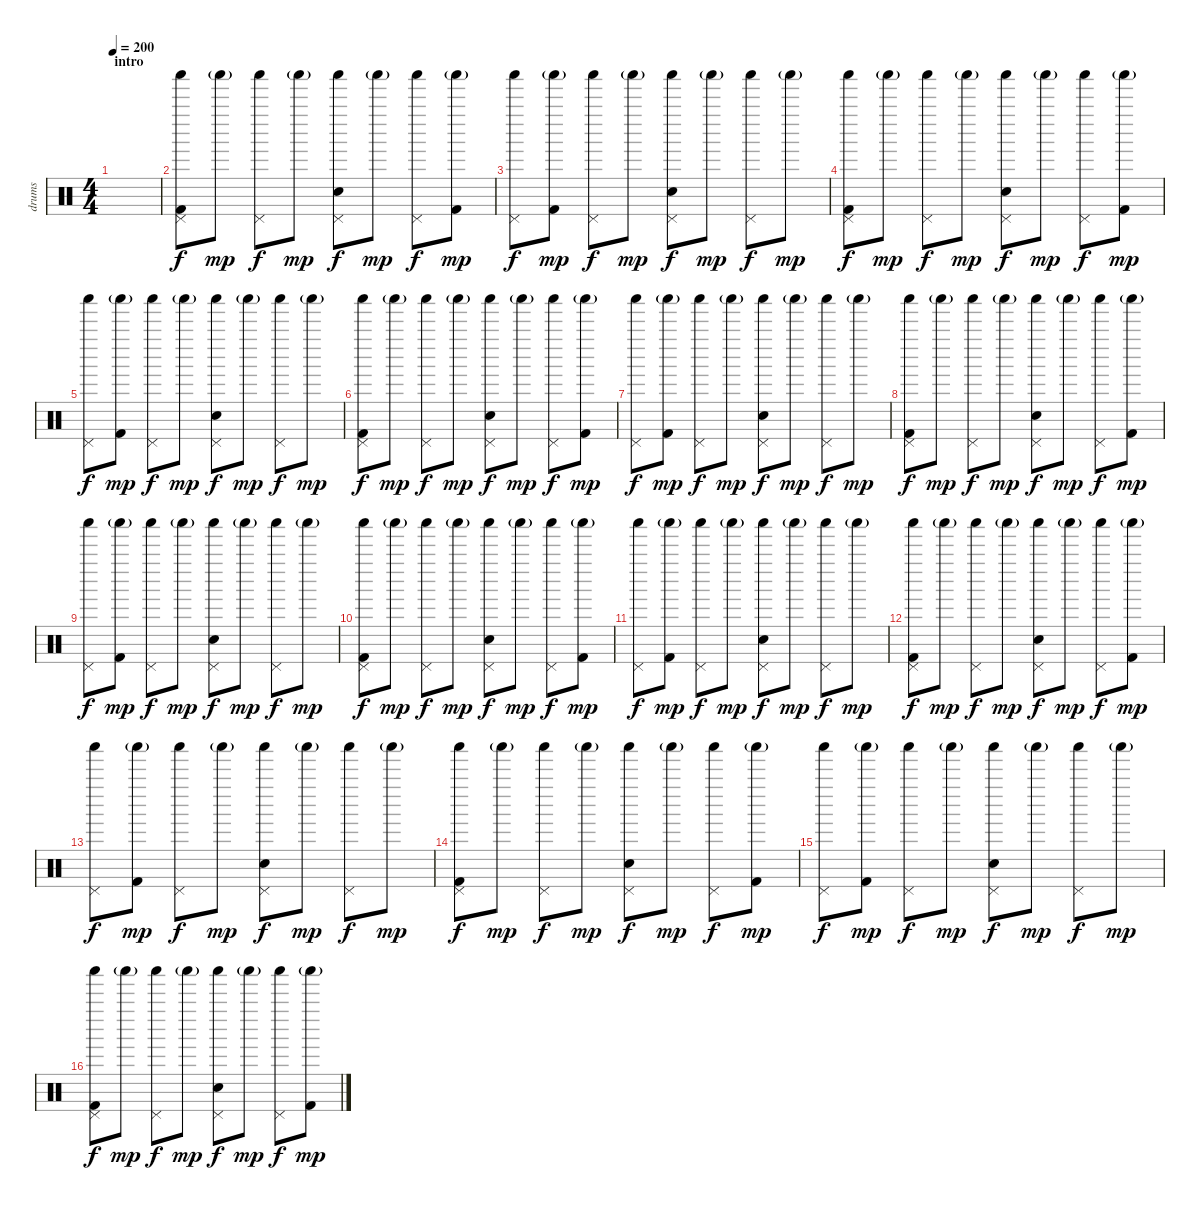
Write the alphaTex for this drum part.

\track ("drums" "drums") {instrument percussion}
\staff {score}
\articulation defaults
\ts (4 4)
\section ("" "intro")
\tempo 200
\clef neutral
\ks c
|
("Kick (hit) 2" "Shaker (hit)" "Pedal Hi-Hat (hit)").8 "Shaker (hit)"{g}.8{dy mp} ("Shaker (hit)" "Pedal Hi-Hat (hit)").8{dy f} "Shaker (hit)"{g}.8{dy mp} ("Electric Snare (hit)" "Shaker (hit)" "Pedal Hi-Hat (hit)").8{dy f} "Shaker (hit)"{g}.8{dy mp} ("Shaker (hit)" "Pedal Hi-Hat (hit)").8{dy f} ("Kick (hit) 2" "Shaker (hit)"{g}).8{dy mp} |
("Shaker (hit)" "Pedal Hi-Hat (hit)").8{dy f} ("Kick (hit) 2" "Shaker (hit)"{g}).8{dy mp} ("Shaker (hit)" "Pedal Hi-Hat (hit)").8{dy f} "Shaker (hit)"{g}.8{dy mp} ("Electric Snare (hit)" "Shaker (hit)" "Pedal Hi-Hat (hit)").8{dy f} "Shaker (hit)"{g}.8{dy mp} ("Shaker (hit)" "Pedal Hi-Hat (hit)").8{dy f} "Shaker (hit)"{g}.8{dy mp} |
("Kick (hit) 2" "Shaker (hit)" "Pedal Hi-Hat (hit)").8{dy f} "Shaker (hit)"{g}.8{dy mp} ("Shaker (hit)" "Pedal Hi-Hat (hit)").8{dy f} "Shaker (hit)"{g}.8{dy mp} ("Electric Snare (hit)" "Shaker (hit)" "Pedal Hi-Hat (hit)").8{dy f} "Shaker (hit)"{g}.8{dy mp} ("Shaker (hit)" "Pedal Hi-Hat (hit)").8{dy f} ("Kick (hit) 2" "Shaker (hit)"{g}).8{dy mp} |
("Shaker (hit)" "Pedal Hi-Hat (hit)").8{dy f} ("Kick (hit) 2" "Shaker (hit)"{g}).8{dy mp} ("Shaker (hit)" "Pedal Hi-Hat (hit)").8{dy f} "Shaker (hit)"{g}.8{dy mp} ("Electric Snare (hit)" "Shaker (hit)" "Pedal Hi-Hat (hit)").8{dy f} "Shaker (hit)"{g}.8{dy mp} ("Shaker (hit)" "Pedal Hi-Hat (hit)").8{dy f} "Shaker (hit)"{g}.8{dy mp} |
("Kick (hit) 2" "Shaker (hit)" "Pedal Hi-Hat (hit)").8{dy f} "Shaker (hit)"{g}.8{dy mp} ("Shaker (hit)" "Pedal Hi-Hat (hit)").8{dy f} "Shaker (hit)"{g}.8{dy mp} ("Electric Snare (hit)" "Shaker (hit)" "Pedal Hi-Hat (hit)").8{dy f} "Shaker (hit)"{g}.8{dy mp} ("Shaker (hit)" "Pedal Hi-Hat (hit)").8{dy f} ("Kick (hit) 2" "Shaker (hit)"{g}).8{dy mp} |
("Shaker (hit)" "Pedal Hi-Hat (hit)").8{dy f} ("Kick (hit) 2" "Shaker (hit)"{g}).8{dy mp} ("Shaker (hit)" "Pedal Hi-Hat (hit)").8{dy f} "Shaker (hit)"{g}.8{dy mp} ("Electric Snare (hit)" "Shaker (hit)" "Pedal Hi-Hat (hit)").8{dy f} "Shaker (hit)"{g}.8{dy mp} ("Shaker (hit)" "Pedal Hi-Hat (hit)").8{dy f} "Shaker (hit)"{g}.8{dy mp} |
("Kick (hit) 2" "Shaker (hit)" "Pedal Hi-Hat (hit)").8{dy f} "Shaker (hit)"{g}.8{dy mp} ("Shaker (hit)" "Pedal Hi-Hat (hit)").8{dy f} "Shaker (hit)"{g}.8{dy mp} ("Electric Snare (hit)" "Shaker (hit)" "Pedal Hi-Hat (hit)").8{dy f} "Shaker (hit)"{g}.8{dy mp} ("Shaker (hit)" "Pedal Hi-Hat (hit)").8{dy f} ("Kick (hit) 2" "Shaker (hit)"{g}).8{dy mp} |
("Shaker (hit)" "Pedal Hi-Hat (hit)").8{dy f} ("Kick (hit) 2" "Shaker (hit)"{g}).8{dy mp} ("Shaker (hit)" "Pedal Hi-Hat (hit)").8{dy f} "Shaker (hit)"{g}.8{dy mp} ("Electric Snare (hit)" "Shaker (hit)" "Pedal Hi-Hat (hit)").8{dy f} "Shaker (hit)"{g}.8{dy mp} ("Shaker (hit)" "Pedal Hi-Hat (hit)").8{dy f} "Shaker (hit)"{g}.8{dy mp} |
("Kick (hit) 2" "Shaker (hit)" "Pedal Hi-Hat (hit)").8{dy f} "Shaker (hit)"{g}.8{dy mp} ("Shaker (hit)" "Pedal Hi-Hat (hit)").8{dy f} "Shaker (hit)"{g}.8{dy mp} ("Electric Snare (hit)" "Shaker (hit)" "Pedal Hi-Hat (hit)").8{dy f} "Shaker (hit)"{g}.8{dy mp} ("Shaker (hit)" "Pedal Hi-Hat (hit)").8{dy f} ("Kick (hit) 2" "Shaker (hit)"{g}).8{dy mp} |
("Shaker (hit)" "Pedal Hi-Hat (hit)").8{dy f} ("Kick (hit) 2" "Shaker (hit)"{g}).8{dy mp} ("Shaker (hit)" "Pedal Hi-Hat (hit)").8{dy f} "Shaker (hit)"{g}.8{dy mp} ("Electric Snare (hit)" "Shaker (hit)" "Pedal Hi-Hat (hit)").8{dy f} "Shaker (hit)"{g}.8{dy mp} ("Shaker (hit)" "Pedal Hi-Hat (hit)").8{dy f} "Shaker (hit)"{g}.8{dy mp} |
("Kick (hit) 2" "Shaker (hit)" "Pedal Hi-Hat (hit)").8{dy f} "Shaker (hit)"{g}.8{dy mp} ("Shaker (hit)" "Pedal Hi-Hat (hit)").8{dy f} "Shaker (hit)"{g}.8{dy mp} ("Electric Snare (hit)" "Shaker (hit)" "Pedal Hi-Hat (hit)").8{dy f} "Shaker (hit)"{g}.8{dy mp} ("Shaker (hit)" "Pedal Hi-Hat (hit)").8{dy f} ("Kick (hit) 2" "Shaker (hit)"{g}).8{dy mp} |
("Shaker (hit)" "Pedal Hi-Hat (hit)").8{dy f} ("Kick (hit) 2" "Shaker (hit)"{g}).8{dy mp} ("Shaker (hit)" "Pedal Hi-Hat (hit)").8{dy f} "Shaker (hit)"{g}.8{dy mp} ("Electric Snare (hit)" "Shaker (hit)" "Pedal Hi-Hat (hit)").8{dy f} "Shaker (hit)"{g}.8{dy mp} ("Shaker (hit)" "Pedal Hi-Hat (hit)").8{dy f} "Shaker (hit)"{g}.8{dy mp} |
("Kick (hit) 2" "Shaker (hit)" "Pedal Hi-Hat (hit)").8{dy f} "Shaker (hit)"{g}.8{dy mp} ("Shaker (hit)" "Pedal Hi-Hat (hit)").8{dy f} "Shaker (hit)"{g}.8{dy mp} ("Electric Snare (hit)" "Shaker (hit)" "Pedal Hi-Hat (hit)").8{dy f} "Shaker (hit)"{g}.8{dy mp} ("Shaker (hit)" "Pedal Hi-Hat (hit)").8{dy f} ("Kick (hit) 2" "Shaker (hit)"{g}).8{dy mp} |
("Shaker (hit)" "Pedal Hi-Hat (hit)").8{dy f} ("Kick (hit) 2" "Shaker (hit)"{g}).8{dy mp} ("Shaker (hit)" "Pedal Hi-Hat (hit)").8{dy f} "Shaker (hit)"{g}.8{dy mp} ("Electric Snare (hit)" "Shaker (hit)" "Pedal Hi-Hat (hit)").8{dy f} "Shaker (hit)"{g}.8{dy mp} ("Shaker (hit)" "Pedal Hi-Hat (hit)").8{dy f} "Shaker (hit)"{g}.8{dy mp} |
("Kick (hit) 2" "Shaker (hit)" "Pedal Hi-Hat (hit)").8{dy f} "Shaker (hit)"{g}.8{dy mp} ("Shaker (hit)" "Pedal Hi-Hat (hit)").8{dy f} "Shaker (hit)"{g}.8{dy mp} ("Electric Snare (hit)" "Shaker (hit)" "Pedal Hi-Hat (hit)").8{dy f} "Shaker (hit)"{g}.8{dy mp} ("Shaker (hit)" "Pedal Hi-Hat (hit)").8{dy f} ("Kick (hit) 2" "Shaker (hit)"{g}).8{dy mp}
